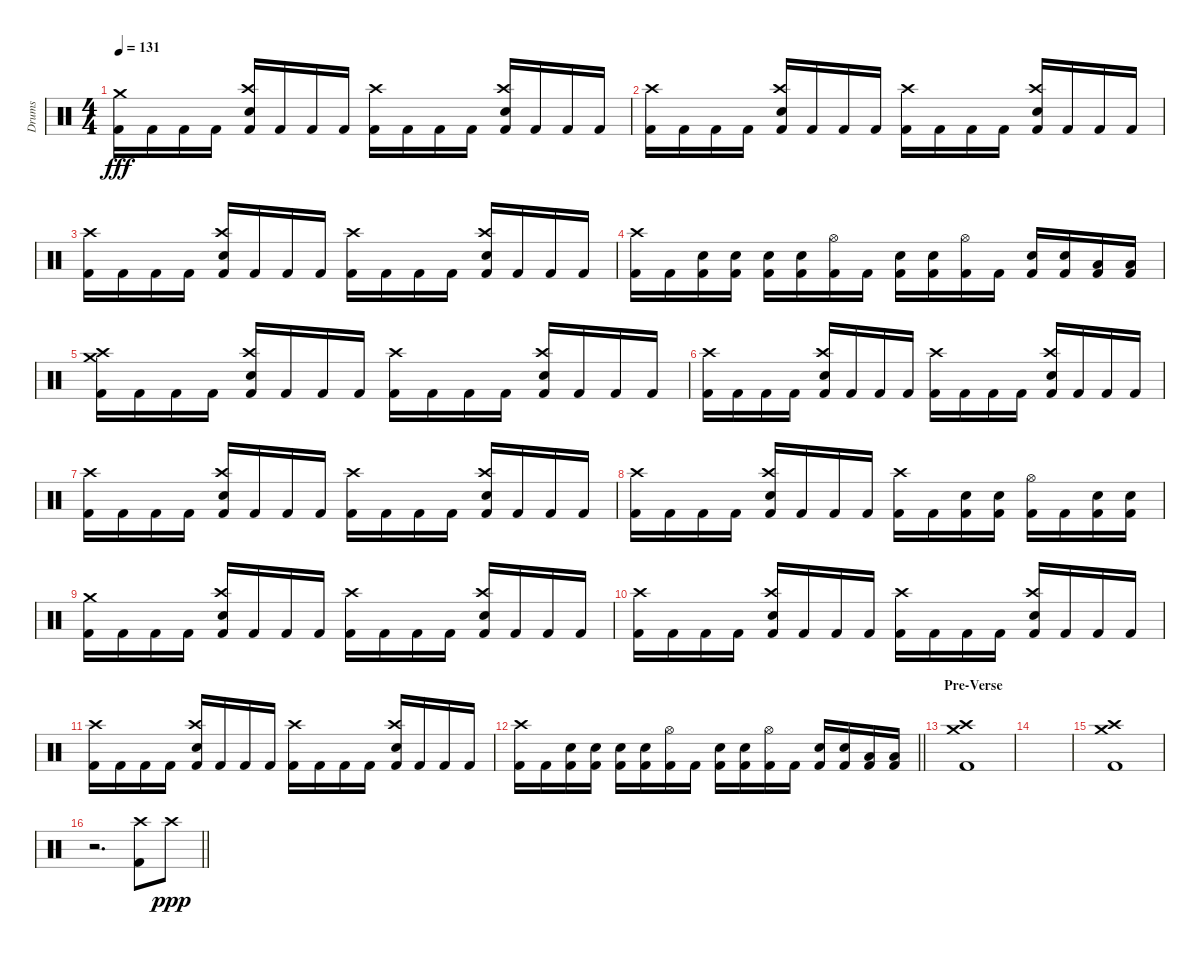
\track ("Drums" "Drums") {instrument percussion}
\staff {score}
\articulation defaults
\ts (4 4)
\tempo 131
\clef neutral
\ks c
("Crash medium (hit)" "Kick (hit) 2").16{dy fff} "Kick (hit) 2".16 "Kick (hit) 2".16 "Kick (hit) 2".16 ("Crash high (hit)" "Electric Snare (hit)" "Kick (hit) 2").16 "Kick (hit) 2".16 "Kick (hit) 2".16 "Kick (hit) 2".16 ("Crash high (hit)" "Kick (hit) 2").16 "Kick (hit) 2".16 "Kick (hit) 2".16 "Kick (hit) 2".16 ("Crash high (hit)" "Electric Snare (hit)" "Kick (hit) 2").16 "Kick (hit) 2".16 "Kick (hit) 2".16 "Kick (hit) 2".16 |
("Crash high (hit)" "Kick (hit) 2").16 "Kick (hit) 2".16 "Kick (hit) 2".16 "Kick (hit) 2".16 ("Crash high (hit)" "Electric Snare (hit)" "Kick (hit) 2").16 "Kick (hit) 2".16 "Kick (hit) 2".16 "Kick (hit) 2".16 ("Crash high (hit)" "Kick (hit) 2").16 "Kick (hit) 2".16 "Kick (hit) 2".16 "Kick (hit) 2".16 ("Crash high (hit)" "Electric Snare (hit)" "Kick (hit) 2").16 "Kick (hit) 2".16 "Kick (hit) 2".16 "Kick (hit) 2".16 |
("Crash high (hit)" "Kick (hit) 2").16 "Kick (hit) 2".16 "Kick (hit) 2".16 "Kick (hit) 2".16 ("Crash high (hit)" "Electric Snare (hit)" "Kick (hit) 2").16 "Kick (hit) 2".16 "Kick (hit) 2".16 "Kick (hit) 2".16 ("Crash high (hit)" "Kick (hit) 2").16 "Kick (hit) 2".16 "Kick (hit) 2".16 "Kick (hit) 2".16 ("Crash high (hit)" "Electric Snare (hit)" "Kick (hit) 2").16 "Kick (hit) 2".16 "Kick (hit) 2".16 "Kick (hit) 2".16 |
("Crash high (hit)" "Kick (hit) 2").16 "Kick (hit) 2".16 ("Electric Snare (hit)" "Kick (hit) 2").16 ("Electric Snare (hit)" "Kick (hit) 2").16 ("Electric Snare (hit)" "Kick (hit) 2").16 ("Electric Snare (hit)" "Kick (hit) 2").16 ("Hi-Hat (open)" "Kick (hit) 2").16 "Kick (hit) 2".16 ("Electric Snare (hit)" "Kick (hit) 2").16 ("Electric Snare (hit)" "Kick (hit) 2").16 ("Hi-Hat (open)" "Kick (hit) 2").16 "Kick (hit) 2".16 ("Electric Snare (hit)" "Kick (hit) 2").16 ("Electric Snare (hit)" "Kick (hit) 2").16 ("Low Tom (hit)" "Kick (hit) 2").16 ("Low Tom (hit)" "Kick (hit) 2").16 |
("Crash medium (hit)" "Crash high (hit)" "Kick (hit) 2").16 "Kick (hit) 2".16 "Kick (hit) 2".16 "Kick (hit) 2".16 ("Crash high (hit)" "Electric Snare (hit)" "Kick (hit) 2").16 "Kick (hit) 2".16 "Kick (hit) 2".16 "Kick (hit) 2".16 ("Crash high (hit)" "Kick (hit) 2").16 "Kick (hit) 2".16 "Kick (hit) 2".16 "Kick (hit) 2".16 ("Crash high (hit)" "Electric Snare (hit)" "Kick (hit) 2").16 "Kick (hit) 2".16 "Kick (hit) 2".16 "Kick (hit) 2".16 |
("Crash high (hit)" "Kick (hit) 2").16 "Kick (hit) 2".16 "Kick (hit) 2".16 "Kick (hit) 2".16 ("Crash high (hit)" "Electric Snare (hit)" "Kick (hit) 2").16 "Kick (hit) 2".16 "Kick (hit) 2".16 "Kick (hit) 2".16 ("Crash high (hit)" "Kick (hit) 2").16 "Kick (hit) 2".16 "Kick (hit) 2".16 "Kick (hit) 2".16 ("Crash high (hit)" "Electric Snare (hit)" "Kick (hit) 2").16 "Kick (hit) 2".16 "Kick (hit) 2".16 "Kick (hit) 2".16 |
("Crash high (hit)" "Kick (hit) 2").16 "Kick (hit) 2".16 "Kick (hit) 2".16 "Kick (hit) 2".16 ("Crash high (hit)" "Electric Snare (hit)" "Kick (hit) 2").16 "Kick (hit) 2".16 "Kick (hit) 2".16 "Kick (hit) 2".16 ("Crash high (hit)" "Kick (hit) 2").16 "Kick (hit) 2".16 "Kick (hit) 2".16 "Kick (hit) 2".16 ("Crash high (hit)" "Electric Snare (hit)" "Kick (hit) 2").16 "Kick (hit) 2".16 "Kick (hit) 2".16 "Kick (hit) 2".16 |
("Crash high (hit)" "Kick (hit) 2").16 "Kick (hit) 2".16 "Kick (hit) 2".16 "Kick (hit) 2".16 ("Crash high (hit)" "Electric Snare (hit)" "Kick (hit) 2").16 "Kick (hit) 2".16 "Kick (hit) 2".16 "Kick (hit) 2".16 ("Crash high (hit)" "Kick (hit) 2").16 "Kick (hit) 2".16 ("Electric Snare (hit)" "Kick (hit) 2").16 ("Electric Snare (hit)" "Kick (hit) 2").16 ("Hi-Hat (open)" "Kick (hit) 2").16 "Kick (hit) 2".16 ("Electric Snare (hit)" "Kick (hit) 2").16 ("Electric Snare (hit)" "Kick (hit) 2").16 |
("Crash medium (hit)" "Kick (hit) 2").16 "Kick (hit) 2".16 "Kick (hit) 2".16 "Kick (hit) 2".16 ("Crash high (hit)" "Electric Snare (hit)" "Kick (hit) 2").16 "Kick (hit) 2".16 "Kick (hit) 2".16 "Kick (hit) 2".16 ("Crash high (hit)" "Kick (hit) 2").16 "Kick (hit) 2".16 "Kick (hit) 2".16 "Kick (hit) 2".16 ("Crash high (hit)" "Electric Snare (hit)" "Kick (hit) 2").16 "Kick (hit) 2".16 "Kick (hit) 2".16 "Kick (hit) 2".16 |
("Crash high (hit)" "Kick (hit) 2").16 "Kick (hit) 2".16 "Kick (hit) 2".16 "Kick (hit) 2".16 ("Crash high (hit)" "Electric Snare (hit)" "Kick (hit) 2").16 "Kick (hit) 2".16 "Kick (hit) 2".16 "Kick (hit) 2".16 ("Crash high (hit)" "Kick (hit) 2").16 "Kick (hit) 2".16 "Kick (hit) 2".16 "Kick (hit) 2".16 ("Crash high (hit)" "Electric Snare (hit)" "Kick (hit) 2").16 "Kick (hit) 2".16 "Kick (hit) 2".16 "Kick (hit) 2".16 |
("Crash high (hit)" "Kick (hit) 2").16 "Kick (hit) 2".16 "Kick (hit) 2".16 "Kick (hit) 2".16 ("Crash high (hit)" "Electric Snare (hit)" "Kick (hit) 2").16 "Kick (hit) 2".16 "Kick (hit) 2".16 "Kick (hit) 2".16 ("Crash high (hit)" "Kick (hit) 2").16 "Kick (hit) 2".16 "Kick (hit) 2".16 "Kick (hit) 2".16 ("Crash high (hit)" "Electric Snare (hit)" "Kick (hit) 2").16 "Kick (hit) 2".16 "Kick (hit) 2".16 "Kick (hit) 2".16 |
\barLineRight lightlight
("Crash high (hit)" "Kick (hit) 2").16 "Kick (hit) 2".16 ("Electric Snare (hit)" "Kick (hit) 2").16 ("Electric Snare (hit)" "Kick (hit) 2").16 ("Electric Snare (hit)" "Kick (hit) 2").16 ("Electric Snare (hit)" "Kick (hit) 2").16 ("Hi-Hat (open)" "Kick (hit) 2").16 "Kick (hit) 2".16 ("Electric Snare (hit)" "Kick (hit) 2").16 ("Electric Snare (hit)" "Kick (hit) 2").16 ("Hi-Hat (open)" "Kick (hit) 2").16 "Kick (hit) 2".16 ("Electric Snare (hit)" "Kick (hit) 2").16 ("Electric Snare (hit)" "Kick (hit) 2").16 ("Low Tom (hit)" "Kick (hit) 2").16 ("Low Tom (hit)" "Kick (hit) 2").16 |
\section ("" "Pre-Verse")
("Crash medium (hit)" "Crash high (hit)" "Kick (hit) 2").1 |
|
("Crash medium (hit)" "Crash high (hit)" "Kick (hit) 2").1 |
\barLineRight lightlight
r.2{d} ("Crash high (hit)" "Kick (hit) 2").8 "Crash high (hit)".8{dy ppp}
